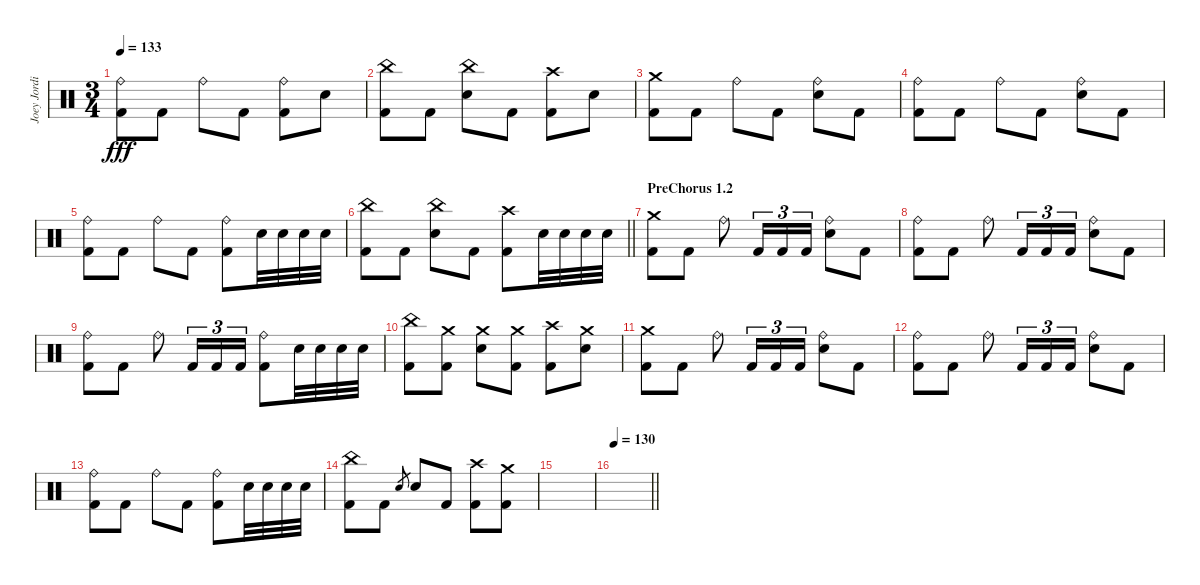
\track ("Joey Jordison" "Joey Jordi") {instrument percussion}
\staff {score}
\articulation defaults
\ts (3 4)
\tempo 133
\clef neutral
\ks c
("Ride (bell)" "Kick (hit) 2").8{dy fff} "Kick (hit) 2".8 "Ride (bell)".8 "Kick (hit) 2".8 ("Ride (bell)" "Kick (hit) 2").8 "Electric Snare (hit)".8 |
("China (hit)" "Kick (hit) 2").8 "Kick (hit) 2".8 ("China (hit)" "Electric Snare (hit)").8 "Kick (hit) 2".8 ("Crash high (hit)" "Kick (hit) 2").8 "Electric Snare (hit)".8 |
("Crash medium (hit)" "Kick (hit) 2").8 "Kick (hit) 2".8 "Ride (bell)".8 "Kick (hit) 2".8 ("Ride (bell)" "Electric Snare (hit)").8 "Kick (hit) 2".8 |
("Ride (bell)" "Kick (hit) 2").8 "Kick (hit) 2".8 "Ride (bell)".8 "Kick (hit) 2".8 ("Ride (bell)" "Electric Snare (hit)").8 "Kick (hit) 2".8 |
("Ride (bell)" "Kick (hit) 2").8 "Kick (hit) 2".8 "Ride (bell)".8 "Kick (hit) 2".8 ("Ride (bell)" "Kick (hit) 2").8 "Electric Snare (hit)".32 "Electric Snare (hit)".32 "Electric Snare (hit)".32 "Electric Snare (hit)".32 |
\barLineRight lightlight
("China (hit)" "Kick (hit) 2").8 "Kick (hit) 2".8 ("China (hit)" "Electric Snare (hit)").8 "Kick (hit) 2".8 ("Crash high (hit)" "Kick (hit) 2").8 "Electric Snare (hit)".32 "Electric Snare (hit)".32 "Electric Snare (hit)".32 "Electric Snare (hit)".32 |
\section ("" "PreChorus 1.2")
("Crash medium (hit)" "Kick (hit) 2").8 "Kick (hit) 2".8 "Ride (bell)".8 "Kick (hit) 2".16{tu (3 2)} "Kick (hit) 2".16{tu (3 2)} "Kick (hit) 2".16{tu (3 2)} ("Ride (bell)" "Electric Snare (hit)").8 "Kick (hit) 2".8 |
("Ride (bell)" "Kick (hit) 2").8 "Kick (hit) 2".8 "Ride (bell)".8 "Kick (hit) 2".16{tu (3 2)} "Kick (hit) 2".16{tu (3 2)} "Kick (hit) 2".16{tu (3 2)} ("Ride (bell)" "Electric Snare (hit)").8 "Kick (hit) 2".8 |
("Ride (bell)" "Kick (hit) 2").8 "Kick (hit) 2".8 "Ride (bell)".8 "Kick (hit) 2".16{tu (3 2)} "Kick (hit) 2".16{tu (3 2)} "Kick (hit) 2".16{tu (3 2)} ("Ride (bell)" "Kick (hit) 2").8 "Electric Snare (hit)".32 "Electric Snare (hit)".32 "Electric Snare (hit)".32 "Electric Snare (hit)".32 |
("China (hit)" "Kick (hit) 2").8 ("Crash medium (hit)" "Kick (hit) 2").8 ("Crash medium (hit)" "Electric Snare (hit)").8 ("Crash medium (hit)" "Kick (hit) 2").8 ("Crash high (hit)" "Kick (hit) 2").8 ("Crash medium (hit)" "Electric Snare (hit)").8 |
("Crash medium (hit)" "Kick (hit) 2").8 "Kick (hit) 2".8 "Ride (bell)".8 "Kick (hit) 2".16{tu (3 2)} "Kick (hit) 2".16{tu (3 2)} "Kick (hit) 2".16{tu (3 2)} ("Ride (bell)" "Electric Snare (hit)").8 "Kick (hit) 2".8 |
("Ride (bell)" "Kick (hit) 2").8 "Kick (hit) 2".8 "Ride (bell)".8 "Kick (hit) 2".16{tu (3 2)} "Kick (hit) 2".16{tu (3 2)} "Kick (hit) 2".16{tu (3 2)} ("Ride (bell)" "Electric Snare (hit)").8 "Kick (hit) 2".8 |
("Ride (bell)" "Kick (hit) 2").8 "Kick (hit) 2".8 "Ride (bell)".8 "Kick (hit) 2".8 ("Ride (bell)" "Kick (hit) 2").8 "Electric Snare (hit)".32 "Electric Snare (hit)".32 "Electric Snare (hit)".32 "Electric Snare (hit)".32 |
("China (hit)" "Kick (hit) 2").8 "Kick (hit) 2".8 "Electric Snare (hit)".8{gr} "Electric Snare (hit)".8 "Kick (hit) 2".8 ("Crash high (hit)" "Kick (hit) 2").8 ("Crash medium (hit)" "Kick (hit) 2").8 |
|
\tempo 130
\barLineRight lightlight
